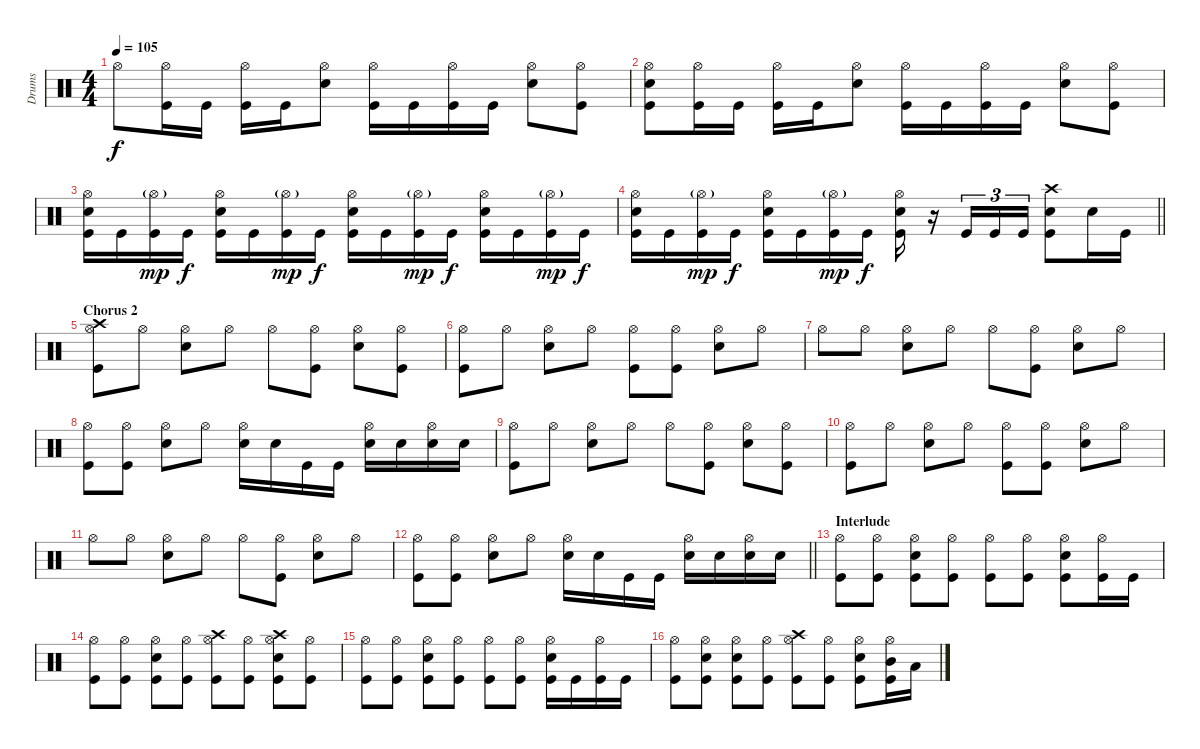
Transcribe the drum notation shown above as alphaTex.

\track ("Drums" "Drums") {instrument percussion}
\staff {score}
\articulation defaults
\ts (4 4)
\tempo 105
\clef neutral
\ks c "Hi-Hat (open)".8{dy f}
("Hi-Hat (open)" "Kick (hit)").16 "Kick (hit)".16 ("Kick (hit)" "Hi-Hat (open)").16 "Kick (hit)".16 ("Snare (hit) 2" "Hi-Hat (open)").8 ("Kick (hit)" "Hi-Hat (open)").16 "Kick (hit)".16 ("Hi-Hat (open)" "Kick (hit)").16 "Kick (hit)".16 ("Snare (hit) 2" "Hi-Hat (open)").8 ("Hi-Hat (open)" "Kick (hit)").8 |
("Kick (hit)" "Snare (hit) 2" "Hi-Hat (open)").8 ("Hi-Hat (open)" "Kick (hit)").16 "Kick (hit)".16 ("Kick (hit)" "Hi-Hat (open)").16 "Kick (hit)".16 ("Snare (hit) 2" "Hi-Hat (open)").8 ("Kick (hit)" "Hi-Hat (open)").16 "Kick (hit)".16 ("Hi-Hat (open)" "Kick (hit)").16 "Kick (hit)".16 ("Snare (hit) 2" "Hi-Hat (open)").8 ("Hi-Hat (open)" "Kick (hit)").8 |
("Hi-Hat (open)" "Snare (hit) 2" "Kick (hit)").16 "Kick (hit)".16 ("Hi-Hat (open)"{g} "Kick (hit)").16{dy mp} "Kick (hit)".16{dy f} ("Hi-Hat (open)" "Kick (hit)" "Snare (hit) 2").16 "Kick (hit)".16 ("Hi-Hat (open)"{g} "Kick (hit)").16{dy mp} "Kick (hit)".16{dy f} ("Hi-Hat (open)" "Kick (hit)" "Snare (hit) 2").16 "Kick (hit)".16 ("Hi-Hat (open)"{g} "Kick (hit)").16{dy mp} "Kick (hit)".16{dy f} ("Hi-Hat (open)" "Kick (hit)" "Snare (hit) 2").16 "Kick (hit)".16 ("Hi-Hat (open)"{g} "Kick (hit)").16{dy mp} "Kick (hit)".16{dy f} |
\barLineRight lightlight
("Hi-Hat (open)" "Snare (hit) 2" "Kick (hit)").16 "Kick (hit)".16 ("Hi-Hat (open)"{g} "Kick (hit)").16{dy mp} "Kick (hit)".16{dy f} ("Hi-Hat (open)" "Kick (hit)" "Snare (hit) 2").16 "Kick (hit)".16 ("Hi-Hat (open)"{g} "Kick (hit)").16{dy mp} "Kick (hit)".16{dy f} ("Hi-Hat (open)" "Kick (hit)" "Snare (hit) 2").16 r.16 "Kick (hit)".16{tu (3 2)} "Kick (hit)".16{tu (3 2)} "Kick (hit)".16{tu (3 2)} ("Crash high (hit)" "Snare (hit) 2" "Kick (hit)").8 "Snare (hit) 2".16 "Kick (hit)".16 |
\section ("" "Chorus 2")
("Kick (hit)" "Hi-Hat (open)" "Crash high (hit)").8 "Hi-Hat (open)".8 ("Snare (hit) 2" "Hi-Hat (open)").8 "Hi-Hat (open)".8 "Hi-Hat (open)".8 ("Kick (hit)" "Hi-Hat (open)").8 ("Snare (hit) 2" "Hi-Hat (open)").8 ("Kick (hit)" "Hi-Hat (open)").8 |
("Kick (hit)" "Hi-Hat (open)").8 "Hi-Hat (open)".8 ("Snare (hit) 2" "Hi-Hat (open)").8 "Hi-Hat (open)".8 ("Kick (hit)" "Hi-Hat (open)").8 ("Kick (hit)" "Hi-Hat (open)").8 ("Snare (hit) 2" "Hi-Hat (open)").8 "Hi-Hat (open)".8 |
"Hi-Hat (open)".8 "Hi-Hat (open)".8 ("Snare (hit) 2" "Hi-Hat (open)").8 "Hi-Hat (open)".8 "Hi-Hat (open)".8 ("Kick (hit)" "Hi-Hat (open)").8 ("Snare (hit) 2" "Hi-Hat (open)").8 "Hi-Hat (open)".8 |
("Kick (hit)" "Hi-Hat (open)").8 ("Kick (hit)" "Hi-Hat (open)").8 ("Snare (hit) 2" "Hi-Hat (open)").8 "Hi-Hat (open)".8 ("Snare (hit) 2" "Hi-Hat (open)").16 "Snare (hit) 2".16 "Kick (hit)".16 "Kick (hit)".16 ("Snare (hit) 2" "Hi-Hat (open)").16 "Snare (hit) 2".16 ("Snare (hit) 2" "Hi-Hat (open)").16 "Snare (hit) 2".16 |
("Kick (hit)" "Hi-Hat (open)").8 "Hi-Hat (open)".8 ("Snare (hit) 2" "Hi-Hat (open)").8 "Hi-Hat (open)".8 "Hi-Hat (open)".8 ("Kick (hit)" "Hi-Hat (open)").8 ("Snare (hit) 2" "Hi-Hat (open)").8 ("Kick (hit)" "Hi-Hat (open)").8 |
("Kick (hit)" "Hi-Hat (open)").8 "Hi-Hat (open)".8 ("Snare (hit) 2" "Hi-Hat (open)").8 "Hi-Hat (open)".8 ("Kick (hit)" "Hi-Hat (open)").8 ("Kick (hit)" "Hi-Hat (open)").8 ("Snare (hit) 2" "Hi-Hat (open)").8 "Hi-Hat (open)".8 |
"Hi-Hat (open)".8 "Hi-Hat (open)".8 ("Snare (hit) 2" "Hi-Hat (open)").8 "Hi-Hat (open)".8 "Hi-Hat (open)".8 ("Kick (hit)" "Hi-Hat (open)").8 ("Snare (hit) 2" "Hi-Hat (open)").8 "Hi-Hat (open)".8 |
\barLineRight lightlight
("Kick (hit)" "Hi-Hat (open)").8 ("Kick (hit)" "Hi-Hat (open)").8 ("Snare (hit) 2" "Hi-Hat (open)").8 "Hi-Hat (open)".8 ("Snare (hit) 2" "Hi-Hat (open)").16 "Snare (hit) 2".16 "Kick (hit)".16 "Kick (hit)".16 ("Snare (hit) 2" "Hi-Hat (open)").16 "Snare (hit) 2".16 ("Snare (hit) 2" "Hi-Hat (open)").16 "Snare (hit) 2".16 |
\section ("" "Interlude")
("Hi-Hat (open)" "Kick (hit)").8 ("Hi-Hat (open)" "Kick (hit)").8 ("Snare (hit) 2" "Hi-Hat (open)" "Kick (hit)").8 ("Hi-Hat (open)" "Kick (hit)").8 ("Hi-Hat (open)" "Kick (hit)").8 ("Hi-Hat (open)" "Kick (hit)").8 ("Snare (hit) 2" "Hi-Hat (open)" "Kick (hit)").8 ("Hi-Hat (open)" "Kick (hit)").16 "Kick (hit)".16 |
("Hi-Hat (open)" "Kick (hit)").8 ("Hi-Hat (open)" "Kick (hit)").8 ("Snare (hit) 2" "Hi-Hat (open)" "Kick (hit)").8 ("Hi-Hat (open)" "Kick (hit)").8 ("Crash high (hit)" "Hi-Hat (open)" "Kick (hit)").8 ("Hi-Hat (open)" "Kick (hit)").8 ("Crash high (hit)" "Snare (hit) 2" "Hi-Hat (open)" "Kick (hit)").8 ("Hi-Hat (open)" "Kick (hit)").8 |
("Hi-Hat (open)" "Kick (hit)").8 ("Hi-Hat (open)" "Kick (hit)").8 ("Snare (hit) 2" "Hi-Hat (open)" "Kick (hit)").8 ("Hi-Hat (open)" "Kick (hit)").8 ("Hi-Hat (open)" "Kick (hit)").8 ("Hi-Hat (open)" "Kick (hit)").8 ("Snare (hit) 2" "Hi-Hat (open)" "Kick (hit)").16 "Kick (hit)".16 ("Kick (hit)" "Hi-Hat (open)").16 "Kick (hit)".16 |
("Hi-Hat (open)" "Kick (hit)").8 ("Snare (hit) 2" "Hi-Hat (open)" "Kick (hit)").8 ("Snare (hit) 2" "Hi-Hat (open)" "Kick (hit)").8 ("Hi-Hat (open)" "Kick (hit)").8 ("Crash high (hit)" "Hi-Hat (open)" "Kick (hit)").8 ("Hi-Hat (open)" "Kick (hit)").8 ("Snare (hit) 2" "Hi-Hat (open)" "Kick (hit)").8 ("Mid Tom (hit)" "Hi-Hat (open)" "Kick (hit)").16 "Low Tom (hit)".16
